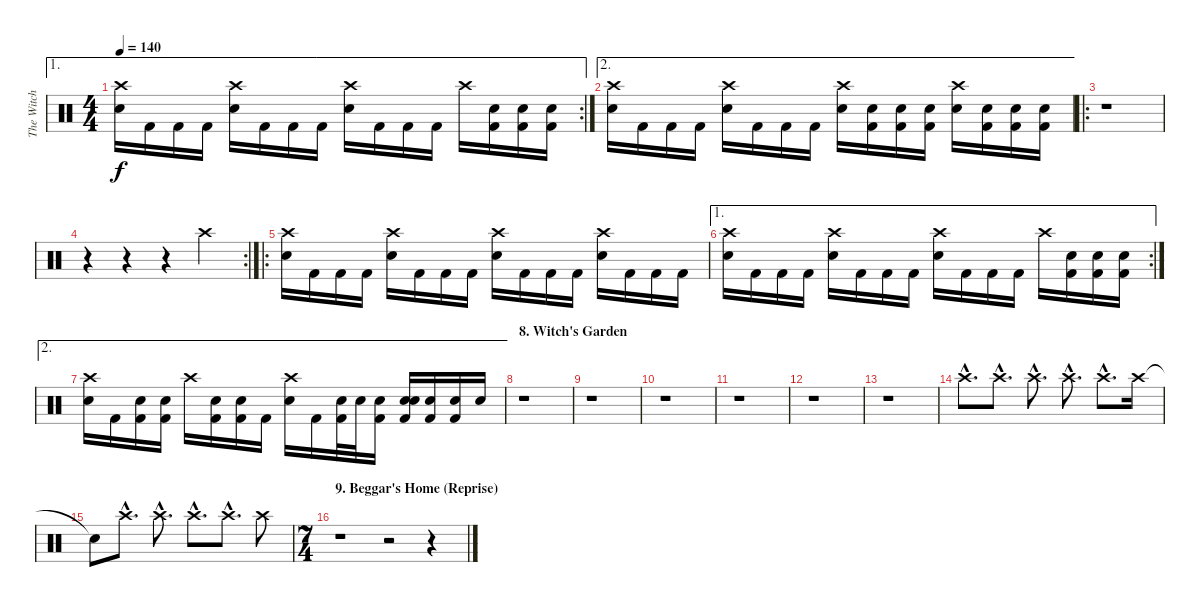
\track ("The Witch" "The Witch") {instrument percussion}
\staff {score}
\articulation defaults
\ae 1
\rc 2
\ts (4 4)
\tempo 140
\clef neutral
\ks c
("Crash high (hit)" "Electric Snare (hit)").16{dy f} "Kick (hit) 2".16 "Kick (hit) 2".16 "Kick (hit) 2".16 ("Crash high (hit)" "Electric Snare (hit)").16 "Kick (hit) 2".16 "Kick (hit) 2".16 "Kick (hit) 2".16 ("Crash high (hit)" "Electric Snare (hit)").16 "Kick (hit) 2".16 "Kick (hit) 2".16 "Kick (hit) 2".16 "Crash high (hit)".16 ("Electric Snare (hit)" "Kick (hit) 2").16 ("Electric Snare (hit)" "Kick (hit) 2").16 ("Electric Snare (hit)" "Kick (hit) 2").16 |
\ae 2
("Crash high (hit)" "Electric Snare (hit)").16 "Kick (hit) 2".16 "Kick (hit) 2".16 "Kick (hit) 2".16 ("Crash high (hit)" "Electric Snare (hit)").16 "Kick (hit) 2".16 "Kick (hit) 2".16 "Kick (hit) 2".16 ("Crash high (hit)" "Electric Snare (hit)").16 ("Electric Snare (hit)" "Kick (hit) 2").16 ("Electric Snare (hit)" "Kick (hit) 2").16 ("Electric Snare (hit)" "Kick (hit) 2").16 ("Crash high (hit)" "Electric Snare (hit)").16 ("Electric Snare (hit)" "Kick (hit) 2").16 ("Electric Snare (hit)" "Kick (hit) 2").16 ("Electric Snare (hit)" "Kick (hit) 2").16 |
\ro
r.1 |
\rc 2
r.4 r.4 r.4 "Crash high (hit)".4 |
\ro
("Crash high (hit)" "Electric Snare (hit)").16 "Kick (hit) 2".16 "Kick (hit) 2".16 "Kick (hit) 2".16 ("Crash high (hit)" "Electric Snare (hit)").16 "Kick (hit) 2".16 "Kick (hit) 2".16 "Kick (hit) 2".16 ("Crash high (hit)" "Electric Snare (hit)").16 "Kick (hit) 2".16 "Kick (hit) 2".16 "Kick (hit) 2".16 ("Crash high (hit)" "Electric Snare (hit)").16 "Kick (hit) 2".16 "Kick (hit) 2".16 "Kick (hit) 2".16 |
\ae 1
\rc 2
("Crash high (hit)" "Electric Snare (hit)").16 "Kick (hit) 2".16 "Kick (hit) 2".16 "Kick (hit) 2".16 ("Crash high (hit)" "Electric Snare (hit)").16 "Kick (hit) 2".16 "Kick (hit) 2".16 "Kick (hit) 2".16 ("Crash high (hit)" "Electric Snare (hit)").16 "Kick (hit) 2".16 "Kick (hit) 2".16 "Kick (hit) 2".16 "Crash high (hit)".16 ("Electric Snare (hit)" "Kick (hit) 2").16 ("Electric Snare (hit)" "Kick (hit) 2").16 ("Electric Snare (hit)" "Kick (hit) 2").16 |
\ae 2
("Crash high (hit)" "Electric Snare (hit)").16 "Kick (hit) 2".16 ("Electric Snare (hit)" "Kick (hit) 2").16 ("Electric Snare (hit)" "Kick (hit) 2").16 "Crash high (hit)".16 ("Electric Snare (hit)" "Kick (hit) 2").16 ("Electric Snare (hit)" "Kick (hit) 2").16 "Kick (hit) 2".16 ("Crash high (hit)" "Electric Snare (hit)").16 "Kick (hit) 2".16 ("Electric Snare (hit)" "Kick (hit) 2").32 "Electric Snare (hit)".32 ("Electric Snare (hit)" "Kick (hit) 2").16 ("Electric Snare (hit)" "Electric Snare (hit)" "Kick (hit) 2").16 ("Electric Snare (hit)" "Kick (hit) 2").16 ("Electric Snare (hit)" "Kick (hit) 2").16 "Electric Snare (hit)".16 |
\section ("" "8. Witch's Garden")
r.1 |
r.1 |
r.1 |
r.1 |
r.1 |
r.1 |
"Crash high (hit)"{hac}.8{d volume 16} "Crash high (hit)"{hac}.8{d} "Crash high (hit)"{hac}.8{d} "Crash high (hit)"{hac}.8{d} "Crash high (hit)"{hac}.8{d} "Crash high (hit)".16 |
"Snare (hit)"{t}.8 "Crash high (hit)"{hac}.8{d} "Crash high (hit)"{hac}.8{d} "Crash high (hit)"{hac}.8{d} "Crash high (hit)"{hac}.8{d} "Crash high (hit)".8 |
\ts (7 4)
\section ("" "9. Beggar's Home (Reprise)")
r.1 r.2 r.4
